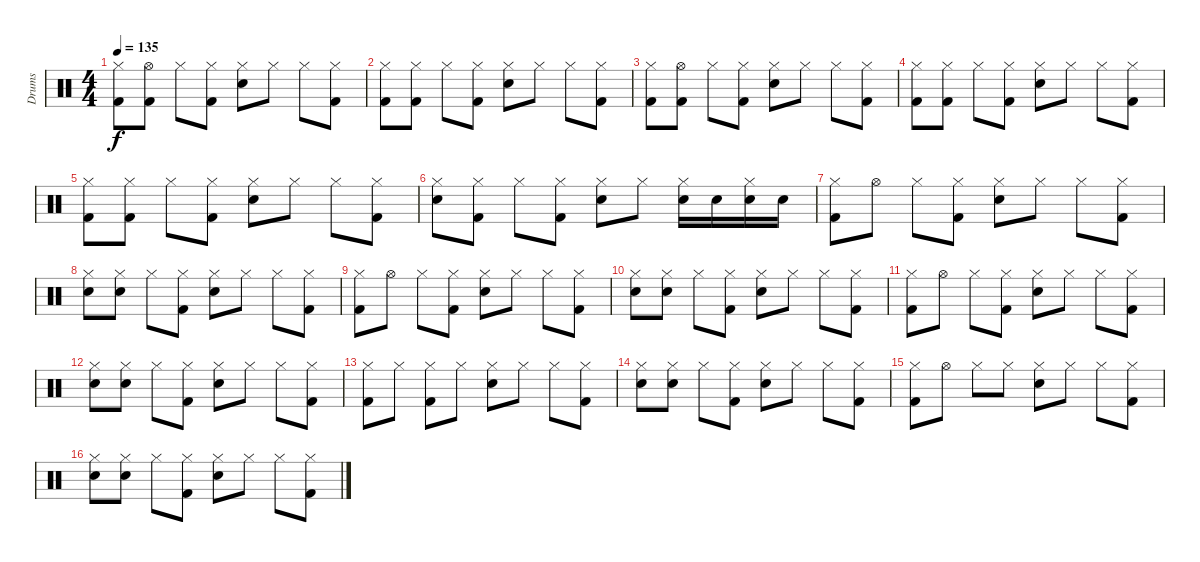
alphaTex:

\track ("Drums" "Drums") {instrument percussion}
\staff {score}
\articulation defaults
\ts (4 4)
\tempo 135
\clef neutral
\ks c
("Hi-Hat (closed)" "Kick (hit) 2").8{dy f} ("Hi-Hat (open)" "Kick (hit) 2").8 "Hi-Hat (closed)".8 ("Hi-Hat (closed)" "Kick (hit) 2").8 ("Hi-Hat (closed)" "Snare (hit) 2").8 "Hi-Hat (closed)".8 "Hi-Hat (closed)".8 ("Hi-Hat (closed)" "Kick (hit) 2").8 |
("Hi-Hat (closed)" "Kick (hit) 2").8 ("Hi-Hat (closed)" "Kick (hit) 2").8 "Hi-Hat (closed)".8 ("Hi-Hat (closed)" "Kick (hit) 2").8 ("Hi-Hat (closed)" "Snare (hit) 2").8 "Hi-Hat (closed)".8 "Hi-Hat (closed)".8 ("Hi-Hat (closed)" "Kick (hit) 2").8 |
("Hi-Hat (closed)" "Kick (hit) 2").8 ("Hi-Hat (open)" "Kick (hit) 2").8 "Hi-Hat (closed)".8 ("Hi-Hat (closed)" "Kick (hit) 2").8 ("Hi-Hat (closed)" "Snare (hit) 2").8 "Hi-Hat (closed)".8 "Hi-Hat (closed)".8 ("Hi-Hat (closed)" "Kick (hit) 2").8 |
("Hi-Hat (closed)" "Kick (hit) 2").8 ("Hi-Hat (closed)" "Kick (hit) 2").8 "Hi-Hat (closed)".8 ("Hi-Hat (closed)" "Kick (hit) 2").8 ("Hi-Hat (closed)" "Snare (hit) 2").8 "Hi-Hat (closed)".8 "Hi-Hat (closed)".8 ("Hi-Hat (closed)" "Kick (hit) 2").8 |
("Hi-Hat (closed)" "Kick (hit) 2").8 ("Hi-Hat (closed)" "Kick (hit) 2").8 "Hi-Hat (closed)".8 ("Hi-Hat (closed)" "Kick (hit) 2").8 ("Hi-Hat (closed)" "Snare (hit) 2").8 "Hi-Hat (closed)".8 "Hi-Hat (closed)".8 ("Hi-Hat (closed)" "Kick (hit) 2").8 |
("Hi-Hat (closed)" "Snare (hit) 2").8 ("Hi-Hat (closed)" "Kick (hit) 2").8 "Hi-Hat (closed)".8 ("Hi-Hat (closed)" "Kick (hit) 2").8 ("Hi-Hat (closed)" "Snare (hit) 2").8 "Hi-Hat (closed)".8 ("Hi-Hat (closed)" "Snare (hit) 2").16 "Snare (hit) 2".16 ("Hi-Hat (closed)" "Snare (hit) 2").16 "Snare (hit) 2".16 |
("Hi-Hat (closed)" "Kick (hit) 2").8 "Hi-Hat (open)".8 "Hi-Hat (closed)".8 ("Hi-Hat (closed)" "Kick (hit) 2").8 ("Hi-Hat (closed)" "Snare (hit) 2").8 "Hi-Hat (closed)".8 "Hi-Hat (closed)".8 ("Hi-Hat (closed)" "Kick (hit) 2").8 |
("Hi-Hat (closed)" "Snare (hit) 2").8 ("Hi-Hat (closed)" "Snare (hit) 2").8 "Hi-Hat (closed)".8 ("Hi-Hat (closed)" "Kick (hit) 2").8 ("Hi-Hat (closed)" "Snare (hit) 2").8 "Hi-Hat (closed)".8 "Hi-Hat (closed)".8 ("Hi-Hat (closed)" "Kick (hit) 2").8 |
("Hi-Hat (closed)" "Kick (hit) 2").8 "Hi-Hat (open)".8 "Hi-Hat (closed)".8 ("Hi-Hat (closed)" "Kick (hit) 2").8 ("Hi-Hat (closed)" "Snare (hit) 2").8 "Hi-Hat (closed)".8 "Hi-Hat (closed)".8 ("Hi-Hat (closed)" "Kick (hit) 2").8 |
("Hi-Hat (closed)" "Snare (hit) 2").8 ("Hi-Hat (closed)" "Snare (hit) 2").8 "Hi-Hat (closed)".8 ("Hi-Hat (closed)" "Kick (hit) 2").8 ("Hi-Hat (closed)" "Snare (hit) 2").8 "Hi-Hat (closed)".8 "Hi-Hat (closed)".8 ("Hi-Hat (closed)" "Kick (hit) 2").8 |
("Hi-Hat (closed)" "Kick (hit) 2").8 "Hi-Hat (open)".8 "Hi-Hat (closed)".8 ("Hi-Hat (closed)" "Kick (hit) 2").8 ("Hi-Hat (closed)" "Snare (hit) 2").8 "Hi-Hat (closed)".8 "Hi-Hat (closed)".8 ("Hi-Hat (closed)" "Kick (hit) 2").8 |
("Hi-Hat (closed)" "Snare (hit) 2").8 ("Hi-Hat (closed)" "Snare (hit) 2").8 "Hi-Hat (closed)".8 ("Hi-Hat (closed)" "Kick (hit) 2").8 ("Hi-Hat (closed)" "Snare (hit) 2").8 "Hi-Hat (closed)".8 "Hi-Hat (closed)".8 ("Hi-Hat (closed)" "Kick (hit) 2").8 |
("Hi-Hat (closed)" "Kick (hit) 2").8 "Hi-Hat (closed)".8 ("Hi-Hat (closed)" "Kick (hit) 2").8 "Hi-Hat (closed)".8 ("Hi-Hat (closed)" "Snare (hit) 2").8 "Hi-Hat (closed)".8 "Hi-Hat (closed)".8 ("Hi-Hat (closed)" "Kick (hit) 2").8 |
("Hi-Hat (closed)" "Snare (hit) 2").8 ("Hi-Hat (closed)" "Snare (hit) 2").8 "Hi-Hat (closed)".8 ("Hi-Hat (closed)" "Kick (hit) 2").8 ("Hi-Hat (closed)" "Snare (hit) 2").8 "Hi-Hat (closed)".8 "Hi-Hat (closed)".8 ("Hi-Hat (closed)" "Kick (hit) 2").8 |
("Hi-Hat (closed)" "Kick (hit) 2").8 "Hi-Hat (open)".8 "Hi-Hat (closed)".8 "Hi-Hat (closed)".8 ("Hi-Hat (closed)" "Snare (hit) 2").8 "Hi-Hat (closed)".8 "Hi-Hat (closed)".8 ("Hi-Hat (closed)" "Kick (hit) 2").8 |
("Hi-Hat (closed)" "Snare (hit) 2").8 ("Hi-Hat (closed)" "Snare (hit) 2").8 "Hi-Hat (closed)".8 ("Hi-Hat (closed)" "Kick (hit) 2").8 ("Hi-Hat (closed)" "Snare (hit) 2").8 "Hi-Hat (closed)".8 "Hi-Hat (closed)".8 ("Hi-Hat (closed)" "Kick (hit) 2").8
